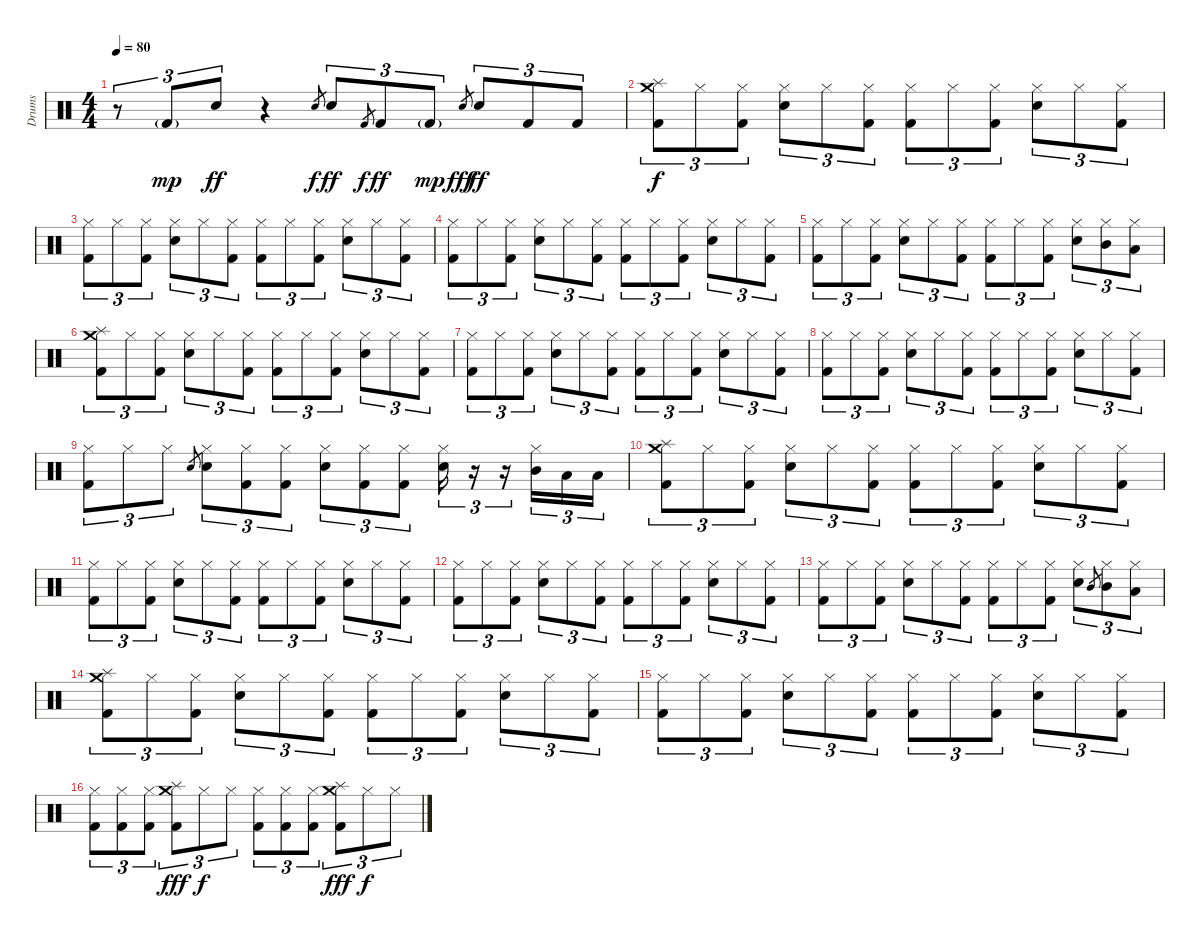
\track ("Drums" "Drums") {instrument percussion}
\staff {score}
\articulation defaults
\ts (4 4)
\tempo 80
\clef neutral
\ks c
r.8{tu (3 2) dy mp} "Kick (hit) 2"{g}.8{tu (3 2)} "Snare (hit) 2".8{tu (3 2) dy ff} r.4 "Snare (hit) 2".8{gr dy f} "Snare (hit) 2".8{tu (3 2) dy ff} "Kick (hit) 2".8{gr dy f} "Kick (hit) 2".8{tu (3 2) dy ff} "Kick (hit) 2"{g}.8{tu (3 2) dy mp} "Snare (hit) 2".8{gr dy fff} "Snare (hit) 2".8{tu (3 2) dy ff} "Kick (hit) 2".8{tu (3 2)} "Kick (hit) 2".8{tu (3 2)} |
("Crash medium (hit)" "Splash (hit)" "Kick (hit) 2").8{tu (3 2) dy f} "Hi-Hat (closed)".8{tu (3 2)} ("Hi-Hat (closed)" "Kick (hit) 2").8{tu (3 2)} ("Hi-Hat (closed)" "Snare (hit) 2").8{tu (3 2)} "Hi-Hat (closed)".8{tu (3 2)} ("Hi-Hat (closed)" "Kick (hit) 2").8{tu (3 2)} ("Hi-Hat (closed)" "Kick (hit) 2").8{tu (3 2)} "Hi-Hat (closed)".8{tu (3 2)} ("Hi-Hat (closed)" "Kick (hit) 2").8{tu (3 2)} ("Hi-Hat (closed)" "Snare (hit) 2").8{tu (3 2)} "Hi-Hat (closed)".8{tu (3 2)} ("Hi-Hat (closed)" "Kick (hit) 2").8{tu (3 2)} |
("Hi-Hat (closed)" "Kick (hit) 2").8{tu (3 2)} "Hi-Hat (closed)".8{tu (3 2)} ("Hi-Hat (closed)" "Kick (hit) 2").8{tu (3 2)} ("Hi-Hat (closed)" "Snare (hit) 2").8{tu (3 2)} "Hi-Hat (closed)".8{tu (3 2)} ("Hi-Hat (closed)" "Kick (hit) 2").8{tu (3 2)} ("Hi-Hat (closed)" "Kick (hit) 2").8{tu (3 2)} "Hi-Hat (closed)".8{tu (3 2)} ("Hi-Hat (closed)" "Kick (hit) 2").8{tu (3 2)} ("Hi-Hat (closed)" "Snare (hit) 2").8{tu (3 2)} "Hi-Hat (closed)".8{tu (3 2)} ("Hi-Hat (closed)" "Kick (hit) 2").8{tu (3 2)} |
("Hi-Hat (closed)" "Kick (hit) 2").8{tu (3 2)} "Hi-Hat (closed)".8{tu (3 2)} ("Hi-Hat (closed)" "Kick (hit) 2").8{tu (3 2)} ("Hi-Hat (closed)" "Snare (hit) 2").8{tu (3 2)} "Hi-Hat (closed)".8{tu (3 2)} ("Hi-Hat (closed)" "Kick (hit) 2").8{tu (3 2)} ("Hi-Hat (closed)" "Kick (hit) 2").8{tu (3 2)} "Hi-Hat (closed)".8{tu (3 2)} ("Hi-Hat (closed)" "Kick (hit) 2").8{tu (3 2)} ("Hi-Hat (closed)" "Snare (hit) 2").8{tu (3 2)} "Hi-Hat (closed)".8{tu (3 2)} ("Hi-Hat (closed)" "Kick (hit) 2").8{tu (3 2)} |
("Hi-Hat (closed)" "Kick (hit) 2").8{tu (3 2)} "Hi-Hat (closed)".8{tu (3 2)} ("Hi-Hat (closed)" "Kick (hit) 2").8{tu (3 2)} ("Hi-Hat (closed)" "Snare (hit) 2").8{tu (3 2)} "Hi-Hat (closed)".8{tu (3 2)} ("Hi-Hat (closed)" "Kick (hit) 2").8{tu (3 2)} ("Hi-Hat (closed)" "Kick (hit) 2").8{tu (3 2)} "Hi-Hat (closed)".8{tu (3 2)} ("Hi-Hat (closed)" "Kick (hit) 2").8{tu (3 2)} ("Hi-Hat (closed)" "Snare (hit) 2").8{tu (3 2)} ("Hi-Hat (closed)" "Mid Tom (hit)").8{tu (3 2)} ("Hi-Hat (closed)" "Low Tom (hit)").8{tu (3 2)} |
("Crash medium (hit)" "Splash (hit)" "Kick (hit) 2").8{tu (3 2)} "Hi-Hat (closed)".8{tu (3 2)} ("Hi-Hat (closed)" "Kick (hit) 2").8{tu (3 2)} ("Hi-Hat (closed)" "Snare (hit) 2").8{tu (3 2)} "Hi-Hat (closed)".8{tu (3 2)} ("Hi-Hat (closed)" "Kick (hit) 2").8{tu (3 2)} ("Hi-Hat (closed)" "Kick (hit) 2").8{tu (3 2)} "Hi-Hat (closed)".8{tu (3 2)} ("Hi-Hat (closed)" "Kick (hit) 2").8{tu (3 2)} ("Hi-Hat (closed)" "Snare (hit) 2").8{tu (3 2)} "Hi-Hat (closed)".8{tu (3 2)} ("Hi-Hat (closed)" "Kick (hit) 2").8{tu (3 2)} |
("Hi-Hat (closed)" "Kick (hit) 2").8{tu (3 2)} "Hi-Hat (closed)".8{tu (3 2)} ("Hi-Hat (closed)" "Kick (hit) 2").8{tu (3 2)} ("Hi-Hat (closed)" "Snare (hit) 2").8{tu (3 2)} "Hi-Hat (closed)".8{tu (3 2)} ("Hi-Hat (closed)" "Kick (hit) 2").8{tu (3 2)} ("Hi-Hat (closed)" "Kick (hit) 2").8{tu (3 2)} "Hi-Hat (closed)".8{tu (3 2)} ("Hi-Hat (closed)" "Kick (hit) 2").8{tu (3 2)} ("Hi-Hat (closed)" "Snare (hit) 2").8{tu (3 2)} "Hi-Hat (closed)".8{tu (3 2)} ("Hi-Hat (closed)" "Kick (hit) 2").8{tu (3 2)} |
("Hi-Hat (closed)" "Kick (hit) 2").8{tu (3 2)} "Hi-Hat (closed)".8{tu (3 2)} ("Hi-Hat (closed)" "Kick (hit) 2").8{tu (3 2)} ("Hi-Hat (closed)" "Snare (hit) 2").8{tu (3 2)} "Hi-Hat (closed)".8{tu (3 2)} ("Hi-Hat (closed)" "Kick (hit) 2").8{tu (3 2)} ("Hi-Hat (closed)" "Kick (hit) 2").8{tu (3 2)} "Hi-Hat (closed)".8{tu (3 2)} ("Hi-Hat (closed)" "Kick (hit) 2").8{tu (3 2)} ("Hi-Hat (closed)" "Snare (hit) 2").8{tu (3 2)} "Hi-Hat (closed)".8{tu (3 2)} ("Hi-Hat (closed)" "Kick (hit) 2").8{tu (3 2)} |
("Hi-Hat (closed)" "Kick (hit) 2").8{tu (3 2)} "Hi-Hat (closed)".8{tu (3 2)} "Hi-Hat (closed)".8{tu (3 2)} "Snare (hit) 2".8{gr} ("Hi-Hat (closed)" "Snare (hit) 2").8{tu (3 2)} ("Hi-Hat (closed)" "Kick (hit) 2").8{tu (3 2)} ("Hi-Hat (closed)" "Kick (hit) 2").8{tu (3 2)} ("Hi-Hat (closed)" "Snare (hit) 2").8{tu (3 2)} ("Hi-Hat (closed)" "Kick (hit) 2").8{tu (3 2)} ("Hi-Hat (closed)" "Kick (hit) 2").8{tu (3 2)} ("Hi-Hat (closed)" "Snare (hit) 2").16{tu (3 2)} r.16{tu (3 2)} r.16{tu (3 2)} ("Hi-Hat (closed)" "Mid Tom (hit)").16{tu (3 2)} "Low Tom (hit)".16{tu (3 2)} "Low Tom (hit)".16{tu (3 2)} |
("Crash medium (hit)" "Splash (hit)" "Kick (hit) 2").8{tu (3 2)} "Hi-Hat (closed)".8{tu (3 2)} ("Hi-Hat (closed)" "Kick (hit) 2").8{tu (3 2)} ("Hi-Hat (closed)" "Snare (hit) 2").8{tu (3 2)} "Hi-Hat (closed)".8{tu (3 2)} ("Hi-Hat (closed)" "Kick (hit) 2").8{tu (3 2)} ("Hi-Hat (closed)" "Kick (hit) 2").8{tu (3 2)} "Hi-Hat (closed)".8{tu (3 2)} ("Hi-Hat (closed)" "Kick (hit) 2").8{tu (3 2)} ("Hi-Hat (closed)" "Snare (hit) 2").8{tu (3 2)} "Hi-Hat (closed)".8{tu (3 2)} ("Hi-Hat (closed)" "Kick (hit) 2").8{tu (3 2)} |
("Hi-Hat (closed)" "Kick (hit) 2").8{tu (3 2)} "Hi-Hat (closed)".8{tu (3 2)} ("Hi-Hat (closed)" "Kick (hit) 2").8{tu (3 2)} ("Hi-Hat (closed)" "Snare (hit) 2").8{tu (3 2)} "Hi-Hat (closed)".8{tu (3 2)} ("Hi-Hat (closed)" "Kick (hit) 2").8{tu (3 2)} ("Hi-Hat (closed)" "Kick (hit) 2").8{tu (3 2)} "Hi-Hat (closed)".8{tu (3 2)} ("Hi-Hat (closed)" "Kick (hit) 2").8{tu (3 2)} ("Hi-Hat (closed)" "Snare (hit) 2").8{tu (3 2)} "Hi-Hat (closed)".8{tu (3 2)} ("Hi-Hat (closed)" "Kick (hit) 2").8{tu (3 2)} |
("Hi-Hat (closed)" "Kick (hit) 2").8{tu (3 2)} "Hi-Hat (closed)".8{tu (3 2)} ("Hi-Hat (closed)" "Kick (hit) 2").8{tu (3 2)} ("Hi-Hat (closed)" "Snare (hit) 2").8{tu (3 2)} "Hi-Hat (closed)".8{tu (3 2)} ("Hi-Hat (closed)" "Kick (hit) 2").8{tu (3 2)} ("Hi-Hat (closed)" "Kick (hit) 2").8{tu (3 2)} "Hi-Hat (closed)".8{tu (3 2)} ("Hi-Hat (closed)" "Kick (hit) 2").8{tu (3 2)} ("Hi-Hat (closed)" "Snare (hit) 2").8{tu (3 2)} "Hi-Hat (closed)".8{tu (3 2)} ("Hi-Hat (closed)" "Kick (hit) 2").8{tu (3 2)} |
("Hi-Hat (closed)" "Kick (hit) 2").8{tu (3 2)} "Hi-Hat (closed)".8{tu (3 2)} ("Hi-Hat (closed)" "Kick (hit) 2").8{tu (3 2)} ("Hi-Hat (closed)" "Snare (hit) 2").8{tu (3 2)} "Hi-Hat (closed)".8{tu (3 2)} ("Hi-Hat (closed)" "Kick (hit) 2").8{tu (3 2)} ("Hi-Hat (closed)" "Kick (hit) 2").8{tu (3 2)} "Hi-Hat (closed)".8{tu (3 2)} ("Hi-Hat (closed)" "Kick (hit) 2").8{tu (3 2)} ("Hi-Hat (closed)" "Snare (hit) 2").8{tu (3 2)} "Mid Tom (hit)".8{gr} ("Hi-Hat (closed)" "Mid Tom (hit)").8{tu (3 2)} ("Hi-Hat (closed)" "Low Tom (hit)").8{tu (3 2)} |
("Crash medium (hit)" "Splash (hit)" "Kick (hit) 2").8{tu (3 2)} "Hi-Hat (closed)".8{tu (3 2)} ("Hi-Hat (closed)" "Kick (hit) 2").8{tu (3 2)} ("Hi-Hat (closed)" "Snare (hit) 2").8{tu (3 2)} "Hi-Hat (closed)".8{tu (3 2)} ("Hi-Hat (closed)" "Kick (hit) 2").8{tu (3 2)} ("Hi-Hat (closed)" "Kick (hit) 2").8{tu (3 2)} "Hi-Hat (closed)".8{tu (3 2)} ("Hi-Hat (closed)" "Kick (hit) 2").8{tu (3 2)} ("Hi-Hat (closed)" "Snare (hit) 2").8{tu (3 2)} "Hi-Hat (closed)".8{tu (3 2)} ("Hi-Hat (closed)" "Kick (hit) 2").8{tu (3 2)} |
("Hi-Hat (closed)" "Kick (hit) 2").8{tu (3 2)} "Hi-Hat (closed)".8{tu (3 2)} ("Hi-Hat (closed)" "Kick (hit) 2").8{tu (3 2)} ("Hi-Hat (closed)" "Snare (hit) 2").8{tu (3 2)} "Hi-Hat (closed)".8{tu (3 2)} ("Hi-Hat (closed)" "Kick (hit) 2").8{tu (3 2)} ("Hi-Hat (closed)" "Kick (hit) 2").8{tu (3 2)} "Hi-Hat (closed)".8{tu (3 2)} ("Hi-Hat (closed)" "Kick (hit) 2").8{tu (3 2)} ("Hi-Hat (closed)" "Snare (hit) 2").8{tu (3 2)} "Hi-Hat (closed)".8{tu (3 2)} ("Hi-Hat (closed)" "Kick (hit) 2").8{tu (3 2)} |
("Hi-Hat (closed)" "Kick (hit) 2").8{tu (3 2)} ("Hi-Hat (closed)" "Kick (hit) 2").8{tu (3 2)} ("Hi-Hat (closed)" "Kick (hit) 2").8{tu (3 2)} ("Crash medium (hit)" "Splash (hit)" "Kick (hit) 2").8{tu (3 2) dy fff} "Hi-Hat (closed)".8{tu (3 2) dy f} "Hi-Hat (closed)".8{tu (3 2)} ("Hi-Hat (closed)" "Kick (hit) 2").8{tu (3 2)} ("Hi-Hat (closed)" "Kick (hit) 2").8{tu (3 2)} ("Hi-Hat (closed)" "Kick (hit) 2").8{tu (3 2)} ("Crash medium (hit)" "Splash (hit)" "Kick (hit) 2").8{tu (3 2) dy fff} "Hi-Hat (closed)".8{tu (3 2) dy f} "Hi-Hat (closed)".8{tu (3 2)}
